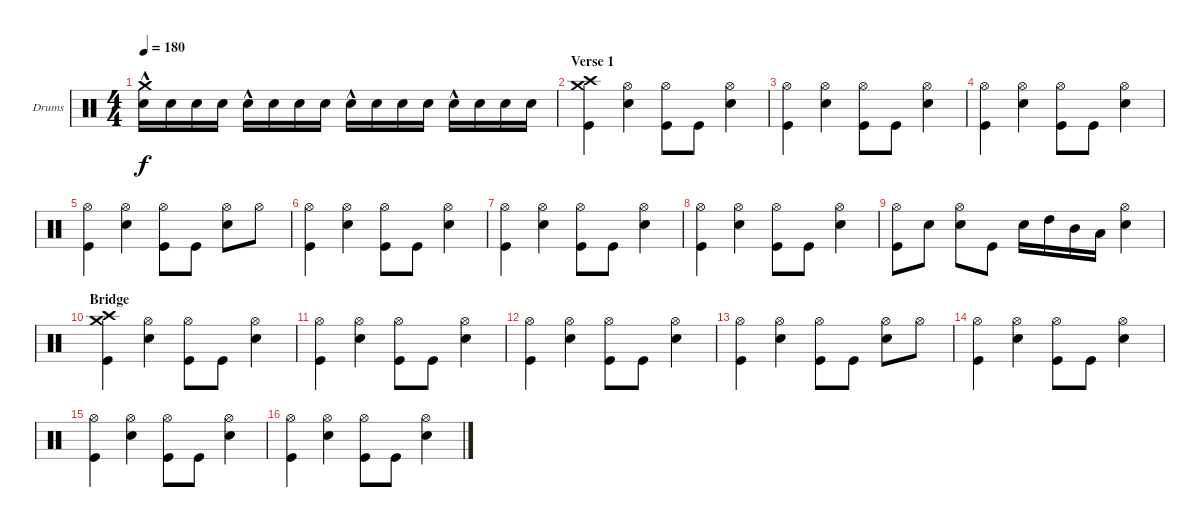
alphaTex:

\defaultSystemsLayout 4
\bracketExtendMode groupsimilarinstruments
\firstSystemTrackNameOrientation horizontal
\otherSystemsTrackNameOrientation horizontal
\track ("Drumkit" "Drums") {instrument percussion}
\staff {score}
\articulation defaults
\ts (4 4)
\tempo 180
\clef neutral
\ks c
("Snare (hit) 2"{hac} "Crash medium (hit)").16{dy f} "Snare (hit) 2".16 "Snare (hit) 2".16 "Snare (hit) 2".16 "Snare (hit) 2"{hac}.16 "Snare (hit) 2".16 "Snare (hit) 2".16 "Snare (hit) 2".16 "Snare (hit) 2"{hac}.16 "Snare (hit) 2".16 "Snare (hit) 2".16 "Snare (hit) 2".16 "Snare (hit) 2"{hac}.16 "Snare (hit) 2".16 "Snare (hit) 2".16 "Snare (hit) 2".16 |
\section ("" "Verse 1")
("Crash medium (hit)" "Kick (hit)" "Crash high (hit)").4 ("Snare (hit) 2" "Hi-Hat (open)").4 ("Hi-Hat (open)" "Kick (hit)").8 "Kick (hit)".8 ("Hi-Hat (open)" "Snare (hit) 2").4 |
("Kick (hit)" "Hi-Hat (open)").4 ("Snare (hit) 2" "Hi-Hat (open)").4 ("Hi-Hat (open)" "Kick (hit)").8 "Kick (hit)".8 ("Hi-Hat (open)" "Snare (hit) 2").4 |
("Kick (hit)" "Hi-Hat (open)").4 ("Snare (hit) 2" "Hi-Hat (open)").4 ("Hi-Hat (open)" "Kick (hit)").8 "Kick (hit)".8 ("Hi-Hat (open)" "Snare (hit) 2").4 |
("Kick (hit)" "Hi-Hat (open)").4 ("Snare (hit) 2" "Hi-Hat (open)").4 ("Hi-Hat (open)" "Kick (hit)").8 "Kick (hit)".8 ("Hi-Hat (open)" "Snare (hit) 2").8 "Hi-Hat (open)".8 |
("Kick (hit)" "Hi-Hat (open)").4 ("Snare (hit) 2" "Hi-Hat (open)").4 ("Hi-Hat (open)" "Kick (hit)").8 "Kick (hit)".8 ("Hi-Hat (open)" "Snare (hit) 2").4 |
("Kick (hit)" "Hi-Hat (open)").4 ("Snare (hit) 2" "Hi-Hat (open)").4 ("Hi-Hat (open)" "Kick (hit)").8 "Kick (hit)".8 ("Hi-Hat (open)" "Snare (hit) 2").4 |
("Kick (hit)" "Hi-Hat (open)").4 ("Snare (hit) 2" "Hi-Hat (open)").4 ("Hi-Hat (open)" "Kick (hit)").8 "Kick (hit)".8 ("Snare (hit) 2" "Hi-Hat (open)").4 |
("Kick (hit)" "Hi-Hat (open)").8 "Snare (hit) 2".8 ("Snare (hit) 2" "Hi-Hat (open)").8 "Kick (hit)".8 "Snare (hit) 2".16 "High Tom (hit)".16 "Mid Tom (hit)".16 "Low Tom (hit)".16 ("Snare (hit) 2" "Hi-Hat (open)").4 |
\section ("" "Bridge")
("Crash medium (hit)" "Kick (hit)" "Crash high (hit)").4 ("Snare (hit) 2" "Hi-Hat (open)").4 ("Hi-Hat (open)" "Kick (hit)").8 "Kick (hit)".8 ("Hi-Hat (open)" "Snare (hit) 2").4 |
("Kick (hit)" "Hi-Hat (open)").4 ("Snare (hit) 2" "Hi-Hat (open)").4 ("Hi-Hat (open)" "Kick (hit)").8 "Kick (hit)".8 ("Hi-Hat (open)" "Snare (hit) 2").4 |
("Kick (hit)" "Hi-Hat (open)").4 ("Snare (hit) 2" "Hi-Hat (open)").4 ("Hi-Hat (open)" "Kick (hit)").8 "Kick (hit)".8 ("Hi-Hat (open)" "Snare (hit) 2").4 |
("Kick (hit)" "Hi-Hat (open)").4 ("Snare (hit) 2" "Hi-Hat (open)").4 ("Hi-Hat (open)" "Kick (hit)").8 "Kick (hit)".8 ("Hi-Hat (open)" "Snare (hit) 2").8 "Hi-Hat (open)".8 |
("Kick (hit)" "Hi-Hat (open)").4 ("Snare (hit) 2" "Hi-Hat (open)").4 ("Hi-Hat (open)" "Kick (hit)").8 "Kick (hit)".8 ("Hi-Hat (open)" "Snare (hit) 2").4 |
("Kick (hit)" "Hi-Hat (open)").4 ("Snare (hit) 2" "Hi-Hat (open)").4 ("Hi-Hat (open)" "Kick (hit)").8 "Kick (hit)".8 ("Hi-Hat (open)" "Snare (hit) 2").4 |
("Kick (hit)" "Hi-Hat (open)").4 ("Snare (hit) 2" "Hi-Hat (open)").4 ("Hi-Hat (open)" "Kick (hit)").8 "Kick (hit)".8 ("Snare (hit) 2" "Hi-Hat (open)").4
